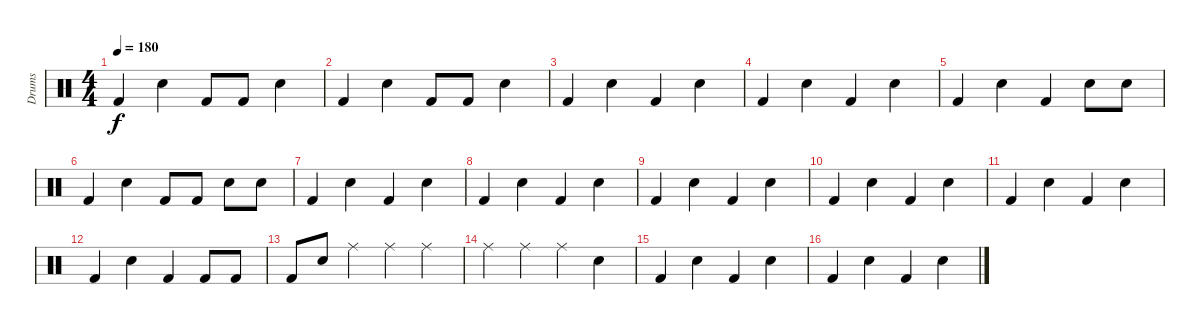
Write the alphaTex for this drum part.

\track ("Drums" "Drums") {instrument percussion}
\staff {score}
\articulation defaults
\ts (4 4)
\tempo 180
\clef neutral
\ks c "Kick (hit) 2".4{dy f} "Snare (hit) 2".4 "Kick (hit) 2".8 "Kick (hit) 2".8 "Snare (hit) 2".4
|
"Kick (hit) 2".4 "Snare (hit) 2".4 "Kick (hit) 2".8 "Kick (hit) 2".8 "Snare (hit) 2".4 |
"Kick (hit) 2".4 "Snare (hit) 2".4 "Kick (hit) 2".4 "Snare (hit) 2".4 |
"Kick (hit) 2".4 "Snare (hit) 2".4 "Kick (hit) 2".4 "Snare (hit) 2".4 |
"Kick (hit) 2".4 "Snare (hit) 2".4 "Kick (hit) 2".4 "Snare (hit) 2".8 "Snare (hit) 2".8 |
"Kick (hit) 2".4 "Snare (hit) 2".4 "Kick (hit) 2".8 "Kick (hit) 2".8 "Snare (hit) 2".8 "Snare (hit) 2".8 |
"Kick (hit) 2".4 "Snare (hit) 2".4 "Kick (hit) 2".4 "Snare (hit) 2".4 |
"Kick (hit) 2".4 "Snare (hit) 2".4 "Kick (hit) 2".4 "Snare (hit) 2".4 |
"Kick (hit) 2".4 "Snare (hit) 2".4 "Kick (hit) 2".4 "Snare (hit) 2".4 |
"Kick (hit) 2".4 "Snare (hit) 2".4 "Kick (hit) 2".4 "Snare (hit) 2".4 |
"Kick (hit) 2".4 "Snare (hit) 2".4 "Kick (hit) 2".4 "Snare (hit) 2".4 |
"Kick (hit) 2".4 "Snare (hit) 2".4 "Kick (hit) 2".4 "Kick (hit) 2".8 "Kick (hit) 2".8 |
"Kick (hit) 2".8 "Snare (hit) 2".8 "Ride (middle)".4 "Ride (middle)".4 "Ride (middle)".4 |
"Ride (middle)".4 "Ride (middle)".4 "Ride (middle)".4 "Metronome (bell)".4 |
"Kick (hit) 2".4 "Snare (hit) 2".4 "Kick (hit) 2".4 "Snare (hit) 2".4 |
"Kick (hit) 2".4 "Snare (hit) 2".4 "Kick (hit) 2".4 "Snare (hit) 2".4
